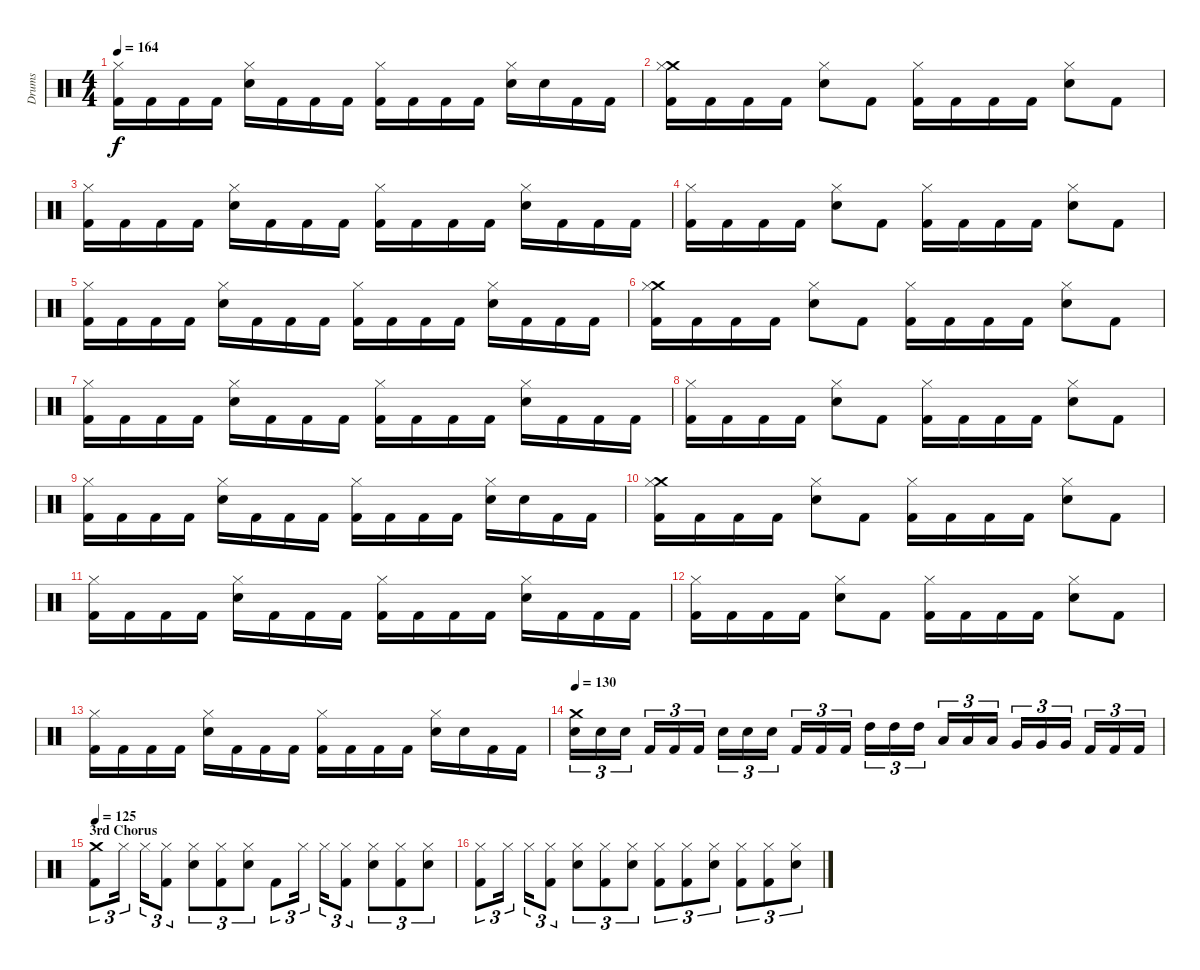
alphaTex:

\track ("Drums" "Drums") {instrument percussion}
\staff {score}
\articulation defaults
\ts (4 4)
\tempo 164
\clef neutral
\ks c
("Hi-Hat (closed)" "Kick (hit) 2").16{dy f} "Kick (hit) 2".16 "Kick (hit) 2".16 "Kick (hit) 2".16 ("Hi-Hat (closed)" "Electric Snare (hit)").16 "Kick (hit) 2".16 "Kick (hit) 2".16 "Kick (hit) 2".16 ("Hi-Hat (closed)" "Kick (hit) 2").16 "Kick (hit) 2".16 "Kick (hit) 2".16 "Kick (hit) 2".16 ("Hi-Hat (closed)" "Electric Snare (hit)").16 "Electric Snare (hit)".16 "Kick (hit) 2".16 "Kick (hit) 2".16 |
("Crash medium (hit)" "Kick (hit) 2" "Hi-Hat (closed)").16 "Kick (hit) 2".16 "Kick (hit) 2".16 "Kick (hit) 2".16 ("Hi-Hat (closed)" "Electric Snare (hit)").8 "Kick (hit) 2".8 ("Hi-Hat (closed)" "Kick (hit) 2").16 "Kick (hit) 2".16 "Kick (hit) 2".16 "Kick (hit) 2".16 ("Hi-Hat (closed)" "Electric Snare (hit)").8 "Kick (hit) 2".8 |
("Hi-Hat (closed)" "Kick (hit) 2").16 "Kick (hit) 2".16 "Kick (hit) 2".16 "Kick (hit) 2".16 ("Hi-Hat (closed)" "Electric Snare (hit)").16 "Kick (hit) 2".16 "Kick (hit) 2".16 "Kick (hit) 2".16 ("Hi-Hat (closed)" "Kick (hit) 2").16 "Kick (hit) 2".16 "Kick (hit) 2".16 "Kick (hit) 2".16 ("Hi-Hat (closed)" "Electric Snare (hit)").16 "Kick (hit) 2".16 "Kick (hit) 2".16 "Kick (hit) 2".16 |
("Hi-Hat (closed)" "Kick (hit) 2").16 "Kick (hit) 2".16 "Kick (hit) 2".16 "Kick (hit) 2".16 ("Hi-Hat (closed)" "Electric Snare (hit)").8 "Kick (hit) 2".8 ("Hi-Hat (closed)" "Kick (hit) 2").16 "Kick (hit) 2".16 "Kick (hit) 2".16 "Kick (hit) 2".16 ("Hi-Hat (closed)" "Electric Snare (hit)").8 "Kick (hit) 2".8 |
("Hi-Hat (closed)" "Kick (hit) 2").16 "Kick (hit) 2".16 "Kick (hit) 2".16 "Kick (hit) 2".16 ("Hi-Hat (closed)" "Electric Snare (hit)").16 "Kick (hit) 2".16 "Kick (hit) 2".16 "Kick (hit) 2".16 ("Hi-Hat (closed)" "Kick (hit) 2").16 "Kick (hit) 2".16 "Kick (hit) 2".16 "Kick (hit) 2".16 ("Hi-Hat (closed)" "Electric Snare (hit)").16 "Kick (hit) 2".16 "Kick (hit) 2".16 "Kick (hit) 2".16 |
("Crash medium (hit)" "Kick (hit) 2" "Hi-Hat (closed)").16 "Kick (hit) 2".16 "Kick (hit) 2".16 "Kick (hit) 2".16 ("Hi-Hat (closed)" "Electric Snare (hit)").8 "Kick (hit) 2".8 ("Hi-Hat (closed)" "Kick (hit) 2").16 "Kick (hit) 2".16 "Kick (hit) 2".16 "Kick (hit) 2".16 ("Hi-Hat (closed)" "Electric Snare (hit)").8 "Kick (hit) 2".8 |
("Hi-Hat (closed)" "Kick (hit) 2").16 "Kick (hit) 2".16 "Kick (hit) 2".16 "Kick (hit) 2".16 ("Hi-Hat (closed)" "Electric Snare (hit)").16 "Kick (hit) 2".16 "Kick (hit) 2".16 "Kick (hit) 2".16 ("Hi-Hat (closed)" "Kick (hit) 2").16 "Kick (hit) 2".16 "Kick (hit) 2".16 "Kick (hit) 2".16 ("Hi-Hat (closed)" "Electric Snare (hit)").16 "Kick (hit) 2".16 "Kick (hit) 2".16 "Kick (hit) 2".16 |
("Hi-Hat (closed)" "Kick (hit) 2").16 "Kick (hit) 2".16 "Kick (hit) 2".16 "Kick (hit) 2".16 ("Hi-Hat (closed)" "Electric Snare (hit)").8 "Kick (hit) 2".8 ("Hi-Hat (closed)" "Kick (hit) 2").16 "Kick (hit) 2".16 "Kick (hit) 2".16 "Kick (hit) 2".16 ("Hi-Hat (closed)" "Electric Snare (hit)").8 "Kick (hit) 2".8 |
("Hi-Hat (closed)" "Kick (hit) 2").16 "Kick (hit) 2".16 "Kick (hit) 2".16 "Kick (hit) 2".16 ("Hi-Hat (closed)" "Electric Snare (hit)").16 "Kick (hit) 2".16 "Kick (hit) 2".16 "Kick (hit) 2".16 ("Hi-Hat (closed)" "Kick (hit) 2").16 "Kick (hit) 2".16 "Kick (hit) 2".16 "Kick (hit) 2".16 ("Hi-Hat (closed)" "Electric Snare (hit)").16 "Electric Snare (hit)".16 "Kick (hit) 2".16 "Kick (hit) 2".16 |
("Crash medium (hit)" "Kick (hit) 2" "Hi-Hat (closed)").16 "Kick (hit) 2".16 "Kick (hit) 2".16 "Kick (hit) 2".16 ("Hi-Hat (closed)" "Electric Snare (hit)").8 "Kick (hit) 2".8 ("Hi-Hat (closed)" "Kick (hit) 2").16 "Kick (hit) 2".16 "Kick (hit) 2".16 "Kick (hit) 2".16 ("Hi-Hat (closed)" "Electric Snare (hit)").8 "Kick (hit) 2".8 |
("Hi-Hat (closed)" "Kick (hit) 2").16 "Kick (hit) 2".16 "Kick (hit) 2".16 "Kick (hit) 2".16 ("Hi-Hat (closed)" "Electric Snare (hit)").16 "Kick (hit) 2".16 "Kick (hit) 2".16 "Kick (hit) 2".16 ("Hi-Hat (closed)" "Kick (hit) 2").16 "Kick (hit) 2".16 "Kick (hit) 2".16 "Kick (hit) 2".16 ("Hi-Hat (closed)" "Electric Snare (hit)").16 "Kick (hit) 2".16 "Kick (hit) 2".16 "Kick (hit) 2".16 |
("Hi-Hat (closed)" "Kick (hit) 2").16 "Kick (hit) 2".16 "Kick (hit) 2".16 "Kick (hit) 2".16 ("Hi-Hat (closed)" "Electric Snare (hit)").8 "Kick (hit) 2".8 ("Hi-Hat (closed)" "Kick (hit) 2").16 "Kick (hit) 2".16 "Kick (hit) 2".16 "Kick (hit) 2".16 ("Hi-Hat (closed)" "Electric Snare (hit)").8 "Kick (hit) 2".8 |
("Hi-Hat (closed)" "Kick (hit) 2").16 "Kick (hit) 2".16 "Kick (hit) 2".16 "Kick (hit) 2".16 ("Hi-Hat (closed)" "Electric Snare (hit)").16 "Kick (hit) 2".16 "Kick (hit) 2".16 "Kick (hit) 2".16 ("Hi-Hat (closed)" "Kick (hit) 2").16 "Kick (hit) 2".16 "Kick (hit) 2".16 "Kick (hit) 2".16 ("Hi-Hat (closed)" "Electric Snare (hit)").16 "Electric Snare (hit)".16 "Kick (hit) 2".16 "Kick (hit) 2".16 |
\tempo 130
("Crash medium (hit)" "Electric Snare (hit)").16{tu (3 2)} "Electric Snare (hit)".16{tu (3 2)} "Electric Snare (hit)".16{tu (3 2)} "Kick (hit) 2".16{tu (3 2)} "Kick (hit) 2".16{tu (3 2)} "Kick (hit) 2".16{tu (3 2)} "Electric Snare (hit)".16{tu (3 2)} "Electric Snare (hit)".16{tu (3 2)} "Electric Snare (hit)".16{tu (3 2)} "Kick (hit) 2".16{tu (3 2)} "Kick (hit) 2".16{tu (3 2)} "Kick (hit) 2".16{tu (3 2)} "High Tom (hit)".16{tu (3 2) balance 4} "High Tom (hit)".16{tu (3 2)} "High Tom (hit)".16{tu (3 2)} "Low Tom (hit)".16{tu (3 2) balance 8} "Low Tom (hit)".16{tu (3 2)} "Low Tom (hit)".16{tu (3 2)} "Very Low Tom (hit)".16{tu (3 2) balance 12} "Very Low Tom (hit)".16{tu (3 2)} "Very Low Tom (hit)".16{tu (3 2)} "Kick (hit) 2".16{tu (3 2) balance 4} "Kick (hit) 2".16{tu (3 2) balance 12} "Kick (hit) 2".16{tu (3 2) balance 8} |
\section ("" "3rd Chorus")
\tempo 125
("Kick (hit) 2" "Crash medium (hit)").8{tu (3 2)} "Hi-Hat (closed)".16{tu (3 2)} "Hi-Hat (closed)".16{tu (3 2)} ("Hi-Hat (closed)" "Kick (hit) 2").8{tu (3 2)} ("Hi-Hat (closed)" "Electric Snare (hit)").8{tu (3 2)} ("Hi-Hat (closed)" "Kick (hit) 2").8{tu (3 2)} ("Hi-Hat (closed)" "Electric Snare (hit)").8{tu (3 2)} "Kick (hit) 2".8{tu (3 2)} "Hi-Hat (closed)".16{tu (3 2)} "Hi-Hat (closed)".16{tu (3 2)} ("Hi-Hat (closed)" "Kick (hit) 2").8{tu (3 2)} ("Hi-Hat (closed)" "Electric Snare (hit)").8{tu (3 2)} ("Hi-Hat (closed)" "Kick (hit) 2").8{tu (3 2)} ("Hi-Hat (closed)" "Electric Snare (hit)").8{tu (3 2)} |
("Hi-Hat (closed)" "Kick (hit) 2").8{tu (3 2)} "Hi-Hat (closed)".16{tu (3 2)} "Hi-Hat (closed)".16{tu (3 2)} ("Hi-Hat (closed)" "Kick (hit) 2").8{tu (3 2)} ("Hi-Hat (closed)" "Electric Snare (hit)").8{tu (3 2)} ("Hi-Hat (closed)" "Kick (hit) 2").8{tu (3 2)} ("Hi-Hat (closed)" "Electric Snare (hit)").8{tu (3 2)} ("Hi-Hat (closed)" "Kick (hit) 2").8{tu (3 2)} ("Hi-Hat (closed)" "Kick (hit) 2").8{tu (3 2)} ("Hi-Hat (closed)" "Electric Snare (hit)").8{tu (3 2)} ("Hi-Hat (closed)" "Kick (hit) 2").8{tu (3 2)} ("Hi-Hat (closed)" "Kick (hit) 2").8{tu (3 2)} ("Hi-Hat (closed)" "Electric Snare (hit)").8{tu (3 2)}
